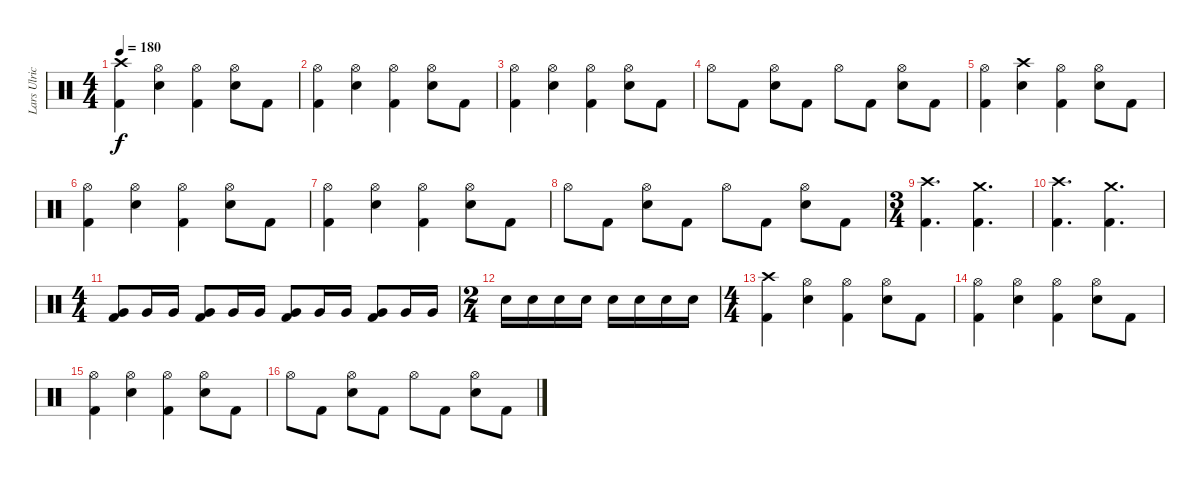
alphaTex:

\track ("Lars Ulrich" "Lars Ulric") {instrument percussion}
\staff {score}
\articulation defaults
\ts (4 4)
\tempo 180
\clef neutral
\ks c
("Crash high (hit)" "Kick (hit) 2").4{dy f} ("Hi-Hat (open)" "Electric Snare (hit)").4 ("Hi-Hat (open)" "Kick (hit) 2").4 ("Hi-Hat (open)" "Electric Snare (hit)").8 "Kick (hit) 2".8 |
("Hi-Hat (open)" "Kick (hit) 2").4 ("Hi-Hat (open)" "Electric Snare (hit)").4 ("Hi-Hat (open)" "Kick (hit) 2").4 ("Hi-Hat (open)" "Electric Snare (hit)").8 "Kick (hit) 2".8 |
("Hi-Hat (open)" "Kick (hit) 2").4 ("Hi-Hat (open)" "Electric Snare (hit)").4 ("Hi-Hat (open)" "Kick (hit) 2").4 ("Hi-Hat (open)" "Electric Snare (hit)").8 "Kick (hit) 2".8 |
"Hi-Hat (open)".8 "Kick (hit) 2".8 ("Hi-Hat (open)" "Electric Snare (hit)").8 "Kick (hit) 2".8 "Hi-Hat (open)".8 "Kick (hit) 2".8 ("Hi-Hat (open)" "Electric Snare (hit)").8 "Kick (hit) 2".8 |
("Hi-Hat (open)" "Kick (hit) 2").4 ("Crash high (hit)" "Electric Snare (hit)").4 ("Hi-Hat (open)" "Kick (hit) 2").4 ("Hi-Hat (open)" "Electric Snare (hit)").8 "Kick (hit) 2".8 |
("Hi-Hat (open)" "Kick (hit) 2").4 ("Hi-Hat (open)" "Electric Snare (hit)").4 ("Hi-Hat (open)" "Kick (hit) 2").4 ("Hi-Hat (open)" "Electric Snare (hit)").8 "Kick (hit) 2".8 |
("Hi-Hat (open)" "Kick (hit) 2").4 ("Hi-Hat (open)" "Electric Snare (hit)").4 ("Hi-Hat (open)" "Kick (hit) 2").4 ("Hi-Hat (open)" "Electric Snare (hit)").8 "Kick (hit) 2".8 |
"Hi-Hat (open)".8 "Kick (hit) 2".8 ("Hi-Hat (open)" "Electric Snare (hit)").8 "Kick (hit) 2".8 "Hi-Hat (open)".8 "Kick (hit) 2".8 ("Hi-Hat (open)" "Electric Snare (hit)").8 "Kick (hit) 2".8 |
\ts (3 4)
("Crash high (hit)" "Kick (hit) 2").4{d} ("Crash medium (hit)" "Kick (hit) 2").4{d} |
("Crash high (hit)" "Kick (hit) 2").4{d} ("Crash medium (hit)" "Kick (hit) 2").4{d} |
\ts (4 4)
("Very Low Tom (hit)" "Kick (hit) 2").8 "Very Low Tom (hit)".16 "Very Low Tom (hit)".16 ("Very Low Tom (hit)" "Kick (hit) 2").8 "Very Low Tom (hit)".16 "Very Low Tom (hit)".16 ("Very Low Tom (hit)" "Kick (hit) 2").8 "Very Low Tom (hit)".16 "Very Low Tom (hit)".16 ("Very Low Tom (hit)" "Kick (hit) 2").8 "Very Low Tom (hit)".16 "Very Low Tom (hit)".16 |
\ts (2 4)
"Electric Snare (hit)".16 "Electric Snare (hit)".16 "Electric Snare (hit)".16 "Electric Snare (hit)".16 "Electric Snare (hit)".16 "Electric Snare (hit)".16 "Electric Snare (hit)".16 "Electric Snare (hit)".16 |
\ts (4 4)
("Crash high (hit)" "Kick (hit) 2").4 ("Hi-Hat (open)" "Electric Snare (hit)").4 ("Hi-Hat (open)" "Kick (hit) 2").4 ("Hi-Hat (open)" "Electric Snare (hit)").8 "Kick (hit) 2".8 |
("Hi-Hat (open)" "Kick (hit) 2").4 ("Hi-Hat (open)" "Electric Snare (hit)").4 ("Hi-Hat (open)" "Kick (hit) 2").4 ("Hi-Hat (open)" "Electric Snare (hit)").8 "Kick (hit) 2".8 |
("Hi-Hat (open)" "Kick (hit) 2").4 ("Hi-Hat (open)" "Electric Snare (hit)").4 ("Hi-Hat (open)" "Kick (hit) 2").4 ("Hi-Hat (open)" "Electric Snare (hit)").8 "Kick (hit) 2".8 |
"Hi-Hat (open)".8 "Kick (hit) 2".8 ("Hi-Hat (open)" "Electric Snare (hit)").8 "Kick (hit) 2".8 "Hi-Hat (open)".8 "Kick (hit) 2".8 ("Hi-Hat (open)" "Electric Snare (hit)").8 "Kick (hit) 2".8
